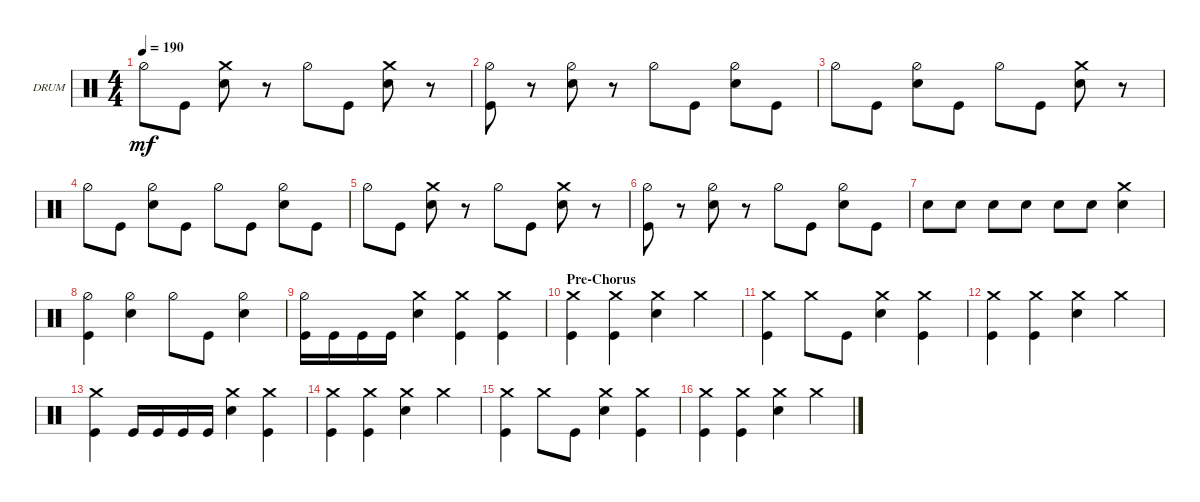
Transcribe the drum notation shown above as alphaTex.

\defaultSystemsLayout 4
\bracketExtendMode groupsimilarinstruments
\firstSystemTrackNameOrientation horizontal
\otherSystemsTrackNameOrientation horizontal
\track ("Drums" "DRUM") {instrument percussion}
\staff {score}
\articulation defaults
\ts (4 4)
\tempo 190
\clef neutral
\ks c "Hi-Hat (half)".8{dy mf} "Kick (hit)".8
("Snare (hit) 2" "Crash medium (hit)").8 r.8 "Hi-Hat (half)".8 "Kick (hit)".8 ("Snare (hit) 2" "Crash medium (hit)").8 r.8 |
("Kick (hit)" "Hi-Hat (half)").8 r.8 ("Snare (hit) 2" "Hi-Hat (half)").8 r.8 "Hi-Hat (half)".8 "Kick (hit)".8 ("Snare (hit) 2" "Hi-Hat (half)").8 "Kick (hit)".8 |
"Hi-Hat (half)".8 "Kick (hit)".8 ("Snare (hit) 2" "Hi-Hat (half)").8 "Kick (hit)".8 "Hi-Hat (half)".8 "Kick (hit)".8 ("Snare (hit) 2" "Crash medium (hit)").8 r.8 |
"Hi-Hat (half)".8 "Kick (hit)".8 ("Snare (hit) 2" "Hi-Hat (half)").8 "Kick (hit)".8 "Hi-Hat (half)".8 "Kick (hit)".8 ("Snare (hit) 2" "Hi-Hat (half)").8 "Kick (hit)".8 |
"Hi-Hat (half)".8 "Kick (hit)".8 ("Snare (hit) 2" "Crash medium (hit)").8 r.8 "Hi-Hat (half)".8 "Kick (hit)".8 ("Snare (hit) 2" "Crash medium (hit)").8 r.8 |
("Kick (hit)" "Hi-Hat (half)").8 r.8 ("Snare (hit) 2" "Hi-Hat (half)").8 r.8 "Hi-Hat (half)".8 "Kick (hit)".8 ("Snare (hit) 2" "Hi-Hat (half)").8 "Kick (hit)".8 |
"Snare (hit) 2".8 "Snare (hit) 2".8 "Snare (hit) 2".8 "Snare (hit) 2".8 "Snare (hit) 2".8 "Snare (hit) 2".8 ("Snare (hit) 2" "Crash medium (hit)").4 |
("Kick (hit)" "Hi-Hat (half)").4 ("Snare (hit) 2" "Hi-Hat (half)").4 "Hi-Hat (half)".8 "Kick (hit)".8 ("Snare (hit) 2" "Hi-Hat (half)").4 |
("Hi-Hat (half)" "Kick (hit)").16 "Kick (hit)".16 "Kick (hit)".16 "Kick (hit)".16 ("Snare (hit) 2" "Crash medium (hit)").4 ("Kick (hit)" "Crash medium (hit)").4 ("Crash medium (hit)" "Kick (hit)").4 |
\section ("" "Pre-Chorus")
("Crash medium (hit)" "Kick (hit)").4 ("Kick (hit)" "Crash medium (hit)").4 ("Snare (hit) 2" "Crash medium (hit)").4 "Crash medium (hit)".4 |
("Kick (hit)" "Crash medium (hit)").4 "Crash medium (hit)".8 "Kick (hit)".8 ("Snare (hit) 2" "Crash medium (hit)").4 ("Crash medium (hit)" "Kick (hit)").4 |
("Crash medium (hit)" "Kick (hit)").4 ("Kick (hit)" "Crash medium (hit)").4 ("Snare (hit) 2" "Crash medium (hit)").4 "Crash medium (hit)".4 |
("Crash medium (hit)" "Kick (hit)").4 "Kick (hit)".16 "Kick (hit)".16 "Kick (hit)".16 "Kick (hit)".16 ("Crash medium (hit)" "Snare (hit) 2").4 ("Kick (hit)" "Crash medium (hit)").4 |
("Kick (hit)" "Crash medium (hit)").4 ("Kick (hit)" "Crash medium (hit)").4 ("Snare (hit) 2" "Crash medium (hit)").4 "Crash medium (hit)".4 |
("Kick (hit)" "Crash medium (hit)").4 "Crash medium (hit)".8 "Kick (hit)".8 ("Snare (hit) 2" "Crash medium (hit)").4 ("Kick (hit)" "Crash medium (hit)").4 |
("Crash medium (hit)" "Kick (hit)").4 ("Kick (hit)" "Crash medium (hit)").4 ("Snare (hit) 2" "Crash medium (hit)").4 "Crash medium (hit)".4
